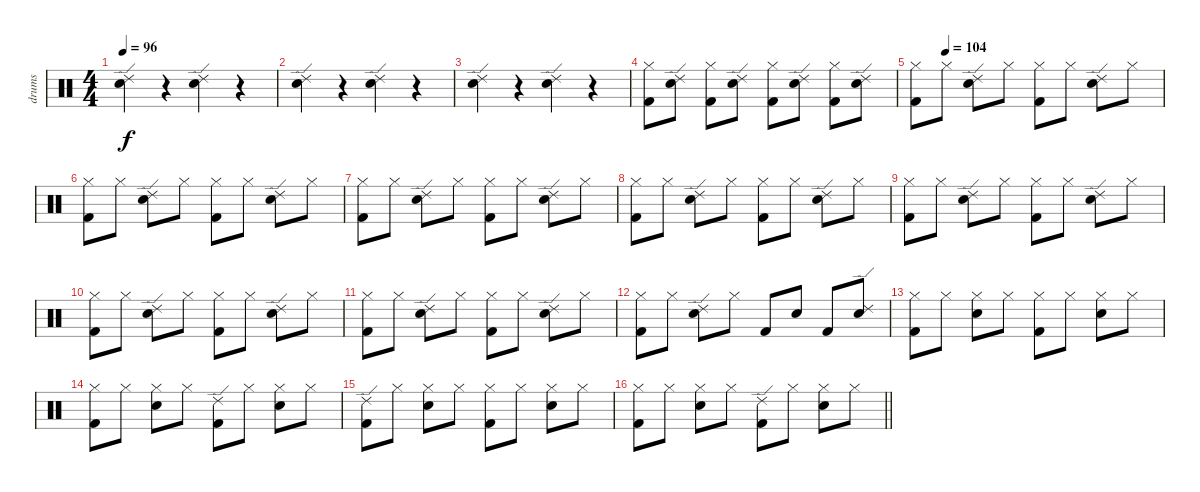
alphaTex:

\track ("drums" "drums") {instrument percussion}
\staff {score}
\articulation defaults
\ts (4 4)
\tempo 96
\clef neutral
\ks c
("Snare (hit) 2" "Ride (edge) 2").4{dy f} r.4 ("Snare (hit) 2" "Ride (edge) 2").4 r.4 |
("Snare (hit) 2" "Ride (edge) 2").4 r.4 ("Snare (hit) 2" "Ride (edge) 2").4 r.4 |
("Snare (hit) 2" "Ride (edge) 2").4 r.4 ("Snare (hit) 2" "Ride (edge) 2").4 r.4 |
("Hi-Hat (closed)" "Kick (hit) 2").8 ("Snare (hit) 2" "Ride (edge) 2").8 ("Hi-Hat (closed)" "Kick (hit) 2").8 ("Snare (hit) 2" "Ride (edge) 2").8 ("Hi-Hat (closed)" "Kick (hit) 2").8 ("Snare (hit) 2" "Ride (edge) 2").8 ("Hi-Hat (closed)" "Kick (hit) 2").8 ("Snare (hit) 2" "Ride (edge) 2").8 |
\tempo (104 0.125)
("Hi-Hat (closed)" "Kick (hit) 2").8 "Hi-Hat (closed)".8 ("Snare (hit) 2" "Ride (edge) 2").8 "Hi-Hat (closed)".8 ("Hi-Hat (closed)" "Kick (hit) 2").8 "Hi-Hat (closed)".8 ("Snare (hit) 2" "Ride (edge) 2").8 "Hi-Hat (closed)".8 |
("Hi-Hat (closed)" "Kick (hit) 2").8 "Hi-Hat (closed)".8 ("Snare (hit) 2" "Ride (edge) 2").8 "Hi-Hat (closed)".8 ("Hi-Hat (closed)" "Kick (hit) 2").8 "Hi-Hat (closed)".8 ("Snare (hit) 2" "Ride (edge) 2").8 "Hi-Hat (closed)".8 |
("Hi-Hat (closed)" "Kick (hit) 2").8 "Hi-Hat (closed)".8 ("Snare (hit) 2" "Ride (edge) 2").8 "Hi-Hat (closed)".8 ("Hi-Hat (closed)" "Kick (hit) 2").8 "Hi-Hat (closed)".8 ("Snare (hit) 2" "Ride (edge) 2").8 "Hi-Hat (closed)".8 |
("Hi-Hat (closed)" "Kick (hit) 2").8 "Hi-Hat (closed)".8 ("Snare (hit) 2" "Ride (edge) 2").8 "Hi-Hat (closed)".8 ("Hi-Hat (closed)" "Kick (hit) 2").8 "Hi-Hat (closed)".8 ("Snare (hit) 2" "Ride (edge) 2").8 "Hi-Hat (closed)".8 |
("Hi-Hat (closed)" "Kick (hit) 2").8 "Hi-Hat (closed)".8 ("Snare (hit) 2" "Ride (edge) 2").8 "Hi-Hat (closed)".8 ("Hi-Hat (closed)" "Kick (hit) 2").8 "Hi-Hat (closed)".8 ("Snare (hit) 2" "Ride (edge) 2").8 "Hi-Hat (closed)".8 |
("Hi-Hat (closed)" "Kick (hit) 2").8 "Hi-Hat (closed)".8 ("Snare (hit) 2" "Ride (edge) 2").8 "Hi-Hat (closed)".8 ("Hi-Hat (closed)" "Kick (hit) 2").8 "Hi-Hat (closed)".8 ("Snare (hit) 2" "Ride (edge) 2").8 "Hi-Hat (closed)".8 |
("Hi-Hat (closed)" "Kick (hit) 2").8 "Hi-Hat (closed)".8 ("Snare (hit) 2" "Ride (edge) 2").8 "Hi-Hat (closed)".8 ("Hi-Hat (closed)" "Kick (hit) 2").8 "Hi-Hat (closed)".8 ("Snare (hit) 2" "Ride (edge) 2").8 "Hi-Hat (closed)".8 |
("Hi-Hat (closed)" "Kick (hit) 2").8 "Hi-Hat (closed)".8 ("Snare (hit) 2" "Ride (edge) 2").8 "Hi-Hat (closed)".8 "Kick (hit) 2".8 "Snare (hit) 2".8 "Kick (hit) 2".8 ("Snare (hit) 2" "Ride (edge) 2").8 |
("Hi-Hat (closed)" "Kick (hit) 2").8 "Hi-Hat (closed)".8 ("Hi-Hat (closed)" "Snare (hit) 2").8 "Hi-Hat (closed)".8 ("Hi-Hat (closed)" "Kick (hit) 2").8 "Hi-Hat (closed)".8 ("Hi-Hat (closed)" "Snare (hit) 2").8 "Hi-Hat (closed)".8 |
("Hi-Hat (closed)" "Kick (hit) 2").8 "Hi-Hat (closed)".8 ("Hi-Hat (closed)" "Snare (hit) 2").8 "Hi-Hat (closed)".8 ("Kick (hit) 2" "Ride (edge) 2").8 "Hi-Hat (closed)".8 ("Hi-Hat (closed)" "Snare (hit) 2").8 "Hi-Hat (closed)".8 |
("Kick (hit) 2" "Ride (edge) 2").8 "Hi-Hat (closed)".8 ("Hi-Hat (closed)" "Snare (hit) 2").8 "Hi-Hat (closed)".8 ("Hi-Hat (closed)" "Kick (hit) 2").8 "Hi-Hat (closed)".8 ("Hi-Hat (closed)" "Snare (hit) 2").8 "Hi-Hat (closed)".8 |
\barLineRight lightlight
("Hi-Hat (closed)" "Kick (hit) 2").8 "Hi-Hat (closed)".8 ("Hi-Hat (closed)" "Snare (hit) 2").8 "Hi-Hat (closed)".8 ("Kick (hit) 2" "Ride (edge) 2").8 "Hi-Hat (closed)".8 ("Hi-Hat (closed)" "Snare (hit) 2").8 "Hi-Hat (closed)".8
